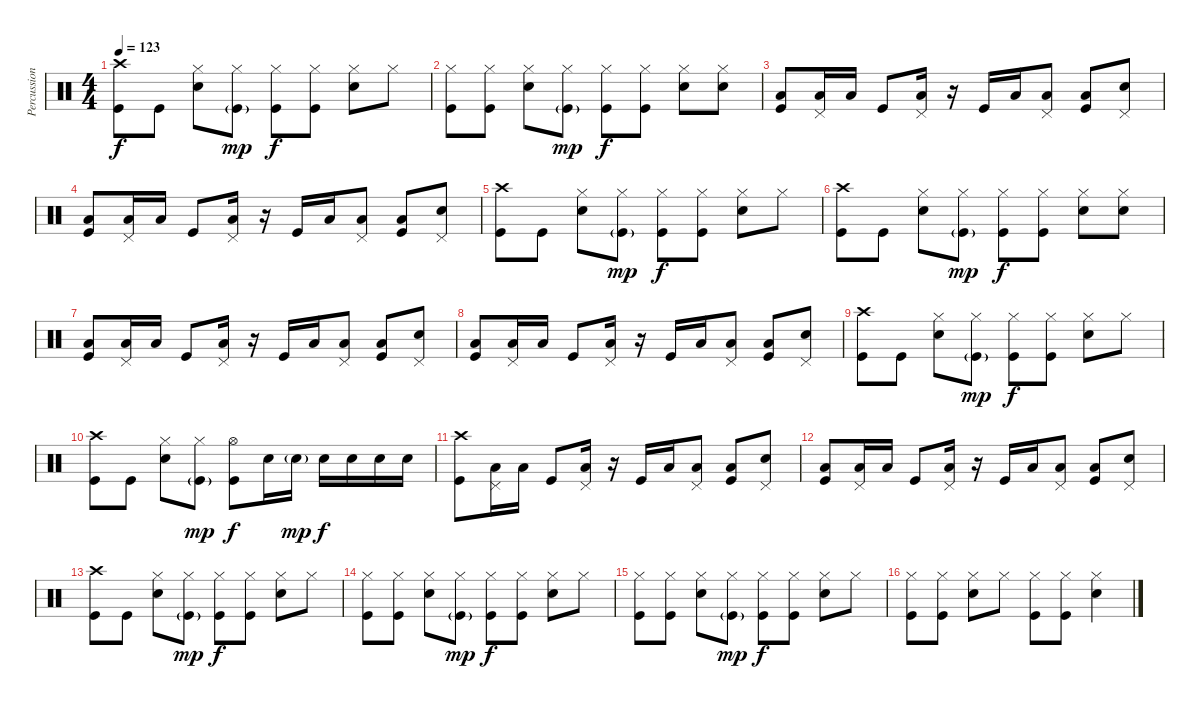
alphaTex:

\track ("Percussion" "Percussion") {instrument percussion}
\staff {score}
\articulation defaults
\ts (4 4)
\tempo 123
\clef neutral
\ks c
("Crash high (hit)" "Kick (hit)").8{dy f} "Kick (hit)".8 ("Hi-Hat (closed)" "Snare (hit) 2").8 ("Hi-Hat (closed)" "Kick (hit)"{g}).8{dy mp} ("Hi-Hat (closed)" "Kick (hit)").8{dy f} ("Hi-Hat (closed)" "Kick (hit)").8 ("Hi-Hat (closed)" "Snare (hit) 2").8 "Hi-Hat (closed)".8 |
("Hi-Hat (closed)" "Kick (hit)").8 ("Hi-Hat (closed)" "Kick (hit)").8 ("Hi-Hat (closed)" "Snare (hit) 2").8 ("Hi-Hat (closed)" "Kick (hit)"{g}).8{dy mp} ("Hi-Hat (closed)" "Kick (hit)").8{dy f} ("Hi-Hat (closed)" "Kick (hit)").8 ("Hi-Hat (closed)" "Snare (hit) 2").8 ("Hi-Hat (closed)" "Snare (hit) 2").8 |
("Low Tom (hit)" "Kick (hit)").8 ("Low Tom (hit)" "Pedal Hi-Hat (hit)").16 "Low Tom (hit)".16 "Kick (hit)".8 ("Low Floor Tom (hit)" "Pedal Hi-Hat (hit)").16 r.16 "Kick (hit)".16 "Low Tom (hit)".16 ("Low Tom (hit)" "Pedal Hi-Hat (hit)").8 ("Low Tom (hit)" "Kick (hit)").8 ("Snare (hit) 2" "Pedal Hi-Hat (hit)").8 |
("Low Tom (hit)" "Kick (hit)").8 ("Low Tom (hit)" "Pedal Hi-Hat (hit)").16 "Low Tom (hit)".16 "Kick (hit)".8 ("Low Floor Tom (hit)" "Pedal Hi-Hat (hit)").16 r.16 "Kick (hit)".16 "Low Tom (hit)".16 ("Low Tom (hit)" "Pedal Hi-Hat (hit)").8 ("Low Tom (hit)" "Kick (hit)").8 ("Snare (hit) 2" "Pedal Hi-Hat (hit)").8 |
("Crash high (hit)" "Kick (hit)").8 "Kick (hit)".8 ("Hi-Hat (closed)" "Snare (hit) 2").8 ("Hi-Hat (closed)" "Kick (hit)"{g}).8{dy mp} ("Hi-Hat (closed)" "Kick (hit)").8{dy f} ("Hi-Hat (closed)" "Kick (hit)").8 ("Hi-Hat (closed)" "Snare (hit) 2").8 "Hi-Hat (closed)".8 |
("Crash high (hit)" "Kick (hit)").8 "Kick (hit)".8 ("Hi-Hat (closed)" "Snare (hit) 2").8 ("Hi-Hat (closed)" "Kick (hit)"{g}).8{dy mp} ("Hi-Hat (closed)" "Kick (hit)").8{dy f} ("Hi-Hat (closed)" "Kick (hit)").8 ("Hi-Hat (closed)" "Snare (hit) 2").8 ("Hi-Hat (closed)" "Snare (hit) 2").8 |
("Low Tom (hit)" "Kick (hit)").8 ("Low Tom (hit)" "Pedal Hi-Hat (hit)").16 "Low Tom (hit)".16 "Kick (hit)".8 ("Low Floor Tom (hit)" "Pedal Hi-Hat (hit)").16 r.16 "Kick (hit)".16 "Low Tom (hit)".16 ("Low Tom (hit)" "Pedal Hi-Hat (hit)").8 ("Low Tom (hit)" "Kick (hit)").8 ("Snare (hit) 2" "Pedal Hi-Hat (hit)").8 |
("Low Tom (hit)" "Kick (hit)").8 ("Low Tom (hit)" "Pedal Hi-Hat (hit)").16 "Low Tom (hit)".16 "Kick (hit)".8 ("Low Floor Tom (hit)" "Pedal Hi-Hat (hit)").16 r.16 "Kick (hit)".16 "Low Tom (hit)".16 ("Low Tom (hit)" "Pedal Hi-Hat (hit)").8 ("Low Tom (hit)" "Kick (hit)").8 ("Snare (hit) 2" "Pedal Hi-Hat (hit)").8 |
("Crash high (hit)" "Kick (hit)").8 "Kick (hit)".8 ("Hi-Hat (closed)" "Snare (hit) 2").8 ("Hi-Hat (closed)" "Kick (hit)"{g}).8{dy mp} ("Hi-Hat (closed)" "Kick (hit)").8{dy f} ("Hi-Hat (closed)" "Kick (hit)").8 ("Hi-Hat (closed)" "Snare (hit) 2").8 "Hi-Hat (closed)".8 |
("Crash high (hit)" "Kick (hit)").8 "Kick (hit)".8 ("Hi-Hat (closed)" "Snare (hit) 2").8 ("Hi-Hat (closed)" "Kick (hit)"{g}).8{dy mp} ("Hi-Hat (open)" "Kick (hit)").8{dy f} "Snare (hit) 2".16 "Snare (hit) 2"{g}.16{dy mp} "Snare (hit) 2".16{dy f} "Snare (hit) 2".16 "Snare (hit) 2".16 "Snare (hit) 2".16 |
("Crash high (hit)" "Kick (hit)").8 ("Low Tom (hit)" "Pedal Hi-Hat (hit)").16 "Low Tom (hit)".16 "Kick (hit)".8 ("Low Floor Tom (hit)" "Pedal Hi-Hat (hit)").16 r.16 "Kick (hit)".16 "Low Tom (hit)".16 ("Low Tom (hit)" "Pedal Hi-Hat (hit)").8 ("Low Tom (hit)" "Kick (hit)").8 ("Snare (hit) 2" "Pedal Hi-Hat (hit)").8 |
("Low Tom (hit)" "Kick (hit)").8 ("Low Tom (hit)" "Pedal Hi-Hat (hit)").16 "Low Tom (hit)".16 "Kick (hit)".8 ("Low Floor Tom (hit)" "Pedal Hi-Hat (hit)").16 r.16 "Kick (hit)".16 "Low Tom (hit)".16 ("Low Tom (hit)" "Pedal Hi-Hat (hit)").8 ("Low Tom (hit)" "Kick (hit)").8 ("Snare (hit) 2" "Pedal Hi-Hat (hit)").8 |
("Crash high (hit)" "Kick (hit)").8 "Kick (hit)".8 ("Hi-Hat (closed)" "Snare (hit) 2").8 ("Hi-Hat (closed)" "Kick (hit)"{g}).8{dy mp} ("Hi-Hat (closed)" "Kick (hit)").8{dy f} ("Hi-Hat (closed)" "Kick (hit)").8 ("Hi-Hat (closed)" "Snare (hit) 2").8 "Hi-Hat (closed)".8 |
("Hi-Hat (closed)" "Kick (hit)").8 ("Hi-Hat (closed)" "Kick (hit)").8 ("Hi-Hat (closed)" "Snare (hit) 2").8 ("Hi-Hat (closed)" "Kick (hit)"{g}).8{dy mp} ("Hi-Hat (closed)" "Kick (hit)").8{dy f} ("Hi-Hat (closed)" "Kick (hit)").8 ("Hi-Hat (closed)" "Snare (hit) 2").8 "Hi-Hat (closed)".8 |
("Hi-Hat (closed)" "Kick (hit)").8 ("Hi-Hat (closed)" "Kick (hit)").8 ("Hi-Hat (closed)" "Snare (hit) 2").8 ("Hi-Hat (closed)" "Kick (hit)"{g}).8{dy mp} ("Hi-Hat (closed)" "Kick (hit)").8{dy f} ("Hi-Hat (closed)" "Kick (hit)").8 ("Hi-Hat (closed)" "Snare (hit) 2").8 "Hi-Hat (closed)".8 |
("Hi-Hat (closed)" "Kick (hit)").8 ("Hi-Hat (closed)" "Kick (hit)").8 ("Hi-Hat (closed)" "Snare (hit) 2").8 "Hi-Hat (closed)".8 ("Hi-Hat (closed)" "Kick (hit)").8 ("Hi-Hat (closed)" "Kick (hit)").8 ("Hi-Hat (closed)" "Snare (hit) 2").4
